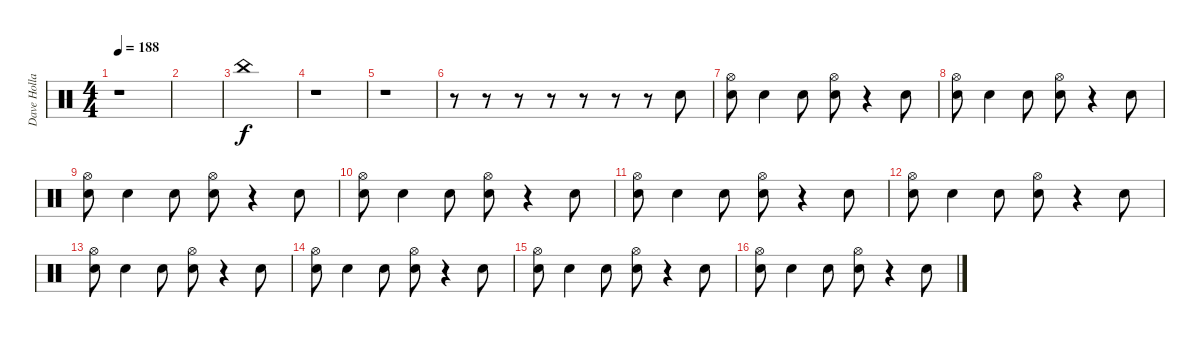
\track ("Dave Holland" "Dave Holla") {instrument percussion}
\staff {score}
\articulation defaults
\ts (4 4)
\tempo 188
\clef neutral
\ks c
r.1{dy f} |
|
"China (hit)".1 |
r.1 |
r.1 |
r.8 r.8 r.8 r.8 r.8 r.8 r.8 "Snare (hit) 2".8 |
("Hi-Hat (open)" "Snare (hit) 2").8 "Snare (hit) 2".4 "Snare (hit) 2".8 ("Hi-Hat (open)" "Metronome (bell)").8 r.4 "Snare (hit) 2".8 |
("Hi-Hat (open)" "Snare (hit) 2").8 "Snare (hit) 2".4 "Snare (hit) 2".8 ("Hi-Hat (open)" "Metronome (bell)").8 r.4 "Snare (hit) 2".8 |
("Hi-Hat (open)" "Snare (hit) 2").8 "Snare (hit) 2".4 "Snare (hit) 2".8 ("Hi-Hat (open)" "Metronome (bell)").8 r.4 "Snare (hit) 2".8 |
("Hi-Hat (open)" "Snare (hit) 2").8 "Snare (hit) 2".4 "Snare (hit) 2".8 ("Hi-Hat (open)" "Metronome (bell)").8 r.4 "Snare (hit) 2".8 |
("Hi-Hat (open)" "Snare (hit) 2").8 "Snare (hit) 2".4 "Snare (hit) 2".8 ("Hi-Hat (open)" "Metronome (bell)").8 r.4 "Snare (hit) 2".8 |
("Hi-Hat (open)" "Snare (hit) 2").8 "Snare (hit) 2".4 "Snare (hit) 2".8 ("Hi-Hat (open)" "Metronome (bell)").8 r.4 "Snare (hit) 2".8 |
("Hi-Hat (open)" "Snare (hit) 2").8 "Snare (hit) 2".4 "Snare (hit) 2".8 ("Hi-Hat (open)" "Metronome (bell)").8 r.4 "Snare (hit) 2".8 |
("Hi-Hat (open)" "Snare (hit) 2").8 "Snare (hit) 2".4 "Snare (hit) 2".8 ("Hi-Hat (open)" "Metronome (bell)").8 r.4 "Snare (hit) 2".8 |
("Hi-Hat (open)" "Snare (hit) 2").8 "Snare (hit) 2".4 "Snare (hit) 2".8 ("Hi-Hat (open)" "Metronome (bell)").8 r.4 "Snare (hit) 2".8 |
("Hi-Hat (open)" "Snare (hit) 2").8 "Snare (hit) 2".4 "Snare (hit) 2".8 ("Hi-Hat (open)" "Metronome (bell)").8 r.4 "Snare (hit) 2".8
